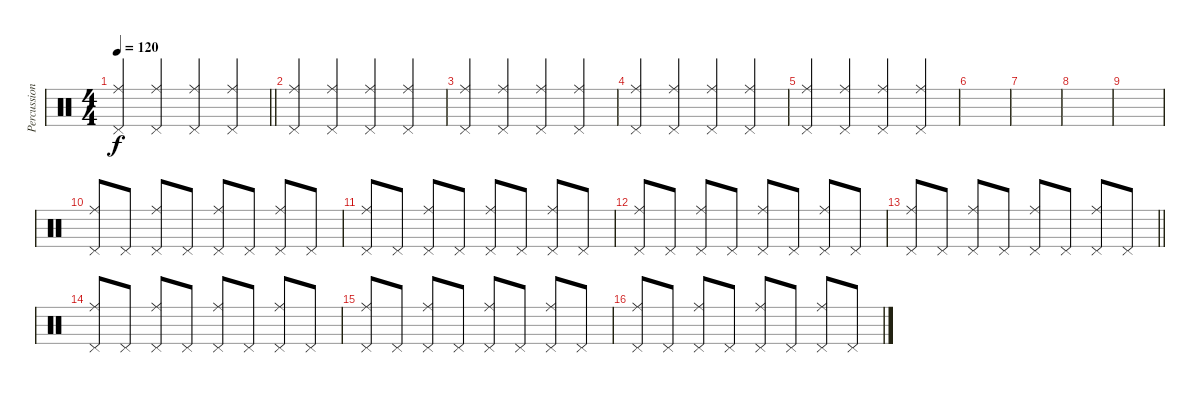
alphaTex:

\track ("Percussion" "Percussion") {instrument percussion}
\staff {score}
\articulation defaults
\ts (4 4)
\tempo 120
\clef neutral
\barLineRight lightlight
\ks c
("Ride (middle)" "Pedal Hi-Hat (hit)").4{dy f} ("Ride (middle)" "Pedal Hi-Hat (hit)").4 ("Ride (middle)" "Pedal Hi-Hat (hit)").4 ("Ride (middle)" "Pedal Hi-Hat (hit)").4 |
("Ride (middle)" "Pedal Hi-Hat (hit)").4 ("Ride (middle)" "Pedal Hi-Hat (hit)").4 ("Ride (middle)" "Pedal Hi-Hat (hit)").4 ("Ride (middle)" "Pedal Hi-Hat (hit)").4 |
("Ride (middle)" "Pedal Hi-Hat (hit)").4 ("Ride (middle)" "Pedal Hi-Hat (hit)").4 ("Ride (middle)" "Pedal Hi-Hat (hit)").4 ("Ride (middle)" "Pedal Hi-Hat (hit)").4 |
("Ride (middle)" "Pedal Hi-Hat (hit)").4 ("Ride (middle)" "Pedal Hi-Hat (hit)").4 ("Ride (middle)" "Pedal Hi-Hat (hit)").4 ("Ride (middle)" "Pedal Hi-Hat (hit)").4 |
("Ride (middle)" "Pedal Hi-Hat (hit)").4 ("Ride (middle)" "Pedal Hi-Hat (hit)").4 ("Ride (middle)" "Pedal Hi-Hat (hit)").4 ("Ride (middle)" "Pedal Hi-Hat (hit)").4 |
|
|
|
|
("Pedal Hi-Hat (hit)" "Ride (middle)").8 "Pedal Hi-Hat (hit)".8 ("Pedal Hi-Hat (hit)" "Ride (middle)").8 "Pedal Hi-Hat (hit)".8 ("Pedal Hi-Hat (hit)" "Ride (middle)").8 "Pedal Hi-Hat (hit)".8 ("Pedal Hi-Hat (hit)" "Ride (middle)").8 "Pedal Hi-Hat (hit)".8 |
("Pedal Hi-Hat (hit)" "Ride (middle)").8 "Pedal Hi-Hat (hit)".8 ("Pedal Hi-Hat (hit)" "Ride (middle)").8 "Pedal Hi-Hat (hit)".8 ("Pedal Hi-Hat (hit)" "Ride (middle)").8 "Pedal Hi-Hat (hit)".8 ("Pedal Hi-Hat (hit)" "Ride (middle)").8 "Pedal Hi-Hat (hit)".8 |
("Pedal Hi-Hat (hit)" "Ride (middle)").8 "Pedal Hi-Hat (hit)".8 ("Pedal Hi-Hat (hit)" "Ride (middle)").8 "Pedal Hi-Hat (hit)".8 ("Pedal Hi-Hat (hit)" "Ride (middle)").8 "Pedal Hi-Hat (hit)".8 ("Pedal Hi-Hat (hit)" "Ride (middle)").8 "Pedal Hi-Hat (hit)".8 |
\barLineRight lightlight
("Pedal Hi-Hat (hit)" "Ride (middle)").8 "Pedal Hi-Hat (hit)".8 ("Pedal Hi-Hat (hit)" "Ride (middle)").8 "Pedal Hi-Hat (hit)".8 ("Pedal Hi-Hat (hit)" "Ride (middle)").8 "Pedal Hi-Hat (hit)".8 ("Pedal Hi-Hat (hit)" "Ride (middle)").8 "Pedal Hi-Hat (hit)".8 |
("Pedal Hi-Hat (hit)" "Ride (middle)").8 "Pedal Hi-Hat (hit)".8 ("Pedal Hi-Hat (hit)" "Ride (middle)").8 "Pedal Hi-Hat (hit)".8 ("Pedal Hi-Hat (hit)" "Ride (middle)").8 "Pedal Hi-Hat (hit)".8 ("Pedal Hi-Hat (hit)" "Ride (middle)").8 "Pedal Hi-Hat (hit)".8 |
("Pedal Hi-Hat (hit)" "Ride (middle)").8 "Pedal Hi-Hat (hit)".8 ("Pedal Hi-Hat (hit)" "Ride (middle)").8 "Pedal Hi-Hat (hit)".8 ("Pedal Hi-Hat (hit)" "Ride (middle)").8 "Pedal Hi-Hat (hit)".8 ("Pedal Hi-Hat (hit)" "Ride (middle)").8 "Pedal Hi-Hat (hit)".8 |
("Pedal Hi-Hat (hit)" "Ride (middle)").8 "Pedal Hi-Hat (hit)".8 ("Pedal Hi-Hat (hit)" "Ride (middle)").8 "Pedal Hi-Hat (hit)".8 ("Pedal Hi-Hat (hit)" "Ride (middle)").8 "Pedal Hi-Hat (hit)".8 ("Pedal Hi-Hat (hit)" "Ride (middle)").8 "Pedal Hi-Hat (hit)".8
